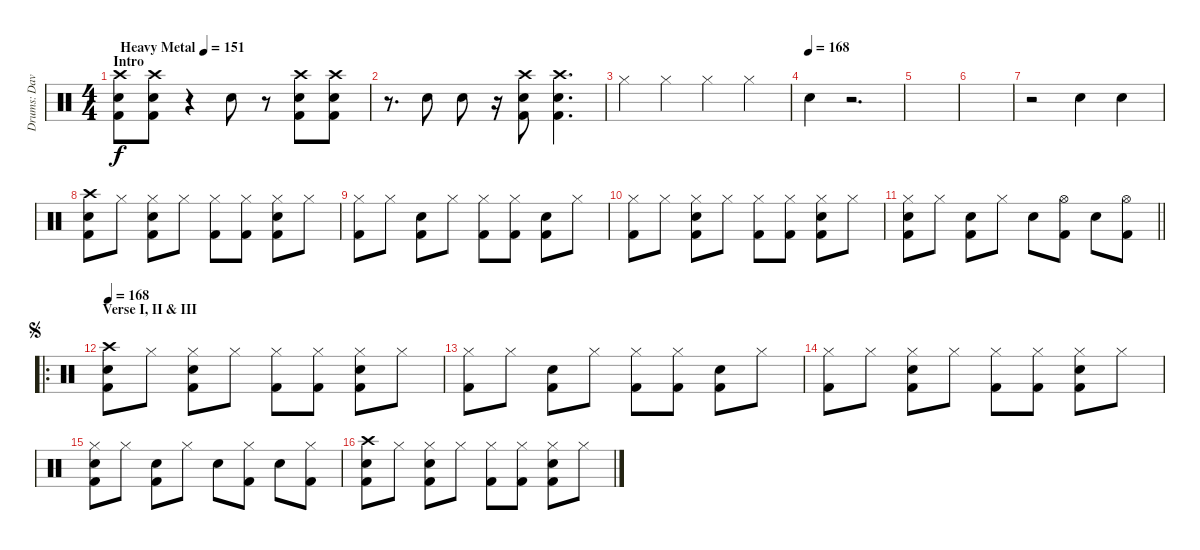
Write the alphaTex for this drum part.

\track ("Drums: Dave" "Drums: Dav") {instrument percussion}
\staff {score}
\articulation defaults
\ts (4 4)
\section ("" "Intro")
\tempo (151 "Heavy Metal")
\clef neutral
\ks c
("Crash high (hit)" "Snare (hit) 2" "Kick (hit) 2").8{dy f} ("Crash high (hit)" "Snare (hit) 2" "Kick (hit) 2").8 r.4 "Snare (hit) 2".8 r.8 ("Crash high (hit)" "Snare (hit) 2" "Kick (hit) 2").8 ("Crash high (hit)" "Snare (hit) 2" "Kick (hit) 2").8 |
r.8{d} "Snare (hit) 2".8 "Snare (hit) 2".8 r.16 ("Crash high (hit)" "Snare (hit) 2" "Kick (hit) 2").8 ("Crash high (hit)" "Snare (hit) 2" "Kick (hit) 2").4{d} |
"Hi-Hat (closed)".4 "Hi-Hat (closed)".4 "Hi-Hat (closed)".4 "Hi-Hat (closed)".4 |
\tempo (168)
"Snare (hit) 2".4 r.2{d} |
|
|
r.2 "Snare (hit) 2".4 "Snare (hit) 2".4 |
("Crash high (hit)" "Snare (hit) 2" "Kick (hit) 2").8 "Hi-Hat (closed)".8 ("Hi-Hat (closed)" "Snare (hit) 2" "Kick (hit) 2").8 "Hi-Hat (closed)".8 ("Hi-Hat (closed)" "Kick (hit) 2").8 ("Hi-Hat (closed)" "Kick (hit) 2").8 ("Hi-Hat (closed)" "Snare (hit) 2" "Kick (hit) 2").8 "Hi-Hat (closed)".8 |
("Hi-Hat (closed)" "Kick (hit) 2").8 "Hi-Hat (closed)".8 ("Snare (hit) 2" "Kick (hit) 2").8 "Hi-Hat (closed)".8 ("Hi-Hat (closed)" "Kick (hit) 2").8 ("Hi-Hat (closed)" "Kick (hit) 2").8 ("Snare (hit) 2" "Kick (hit) 2").8 "Hi-Hat (closed)".8 |
("Hi-Hat (closed)" "Kick (hit) 2").8 "Hi-Hat (closed)".8 ("Hi-Hat (closed)" "Snare (hit) 2" "Kick (hit) 2").8 "Hi-Hat (closed)".8 ("Hi-Hat (closed)" "Kick (hit) 2").8 ("Hi-Hat (closed)" "Kick (hit) 2").8 ("Hi-Hat (closed)" "Snare (hit) 2" "Kick (hit) 2").8 "Hi-Hat (closed)".8 |
\barLineRight lightlight
("Hi-Hat (closed)" "Snare (hit) 2" "Kick (hit) 2").8 "Hi-Hat (closed)".8 ("Snare (hit) 2" "Kick (hit) 2").8 "Hi-Hat (closed)".8 "Snare (hit) 2".8 ("Hi-Hat (open)" "Kick (hit) 2").8 "Snare (hit) 2".8 ("Hi-Hat (open)" "Kick (hit) 2").8 |
\ro
\section ("" "Verse I, II & III")
\jump segno
\tempo 168
("Crash high (hit)" "Snare (hit) 2" "Kick (hit) 2").8 "Hi-Hat (closed)".8 ("Hi-Hat (closed)" "Snare (hit) 2" "Kick (hit) 2").8 "Hi-Hat (closed)".8 ("Hi-Hat (closed)" "Kick (hit) 2").8 ("Hi-Hat (closed)" "Kick (hit) 2").8 ("Hi-Hat (closed)" "Snare (hit) 2" "Kick (hit) 2").8 "Hi-Hat (closed)".8 |
("Hi-Hat (closed)" "Kick (hit) 2").8 "Hi-Hat (closed)".8 ("Snare (hit) 2" "Kick (hit) 2").8 "Hi-Hat (closed)".8 ("Hi-Hat (closed)" "Kick (hit) 2").8 ("Hi-Hat (closed)" "Kick (hit) 2").8 ("Snare (hit) 2" "Kick (hit) 2").8 "Hi-Hat (closed)".8 |
("Hi-Hat (closed)" "Kick (hit) 2").8 "Hi-Hat (closed)".8 ("Hi-Hat (closed)" "Snare (hit) 2" "Kick (hit) 2").8 "Hi-Hat (closed)".8 ("Hi-Hat (closed)" "Kick (hit) 2").8 ("Hi-Hat (closed)" "Kick (hit) 2").8 ("Hi-Hat (closed)" "Snare (hit) 2" "Kick (hit) 2").8 "Hi-Hat (closed)".8 |
("Hi-Hat (closed)" "Snare (hit) 2" "Kick (hit) 2").8 "Hi-Hat (closed)".8 ("Snare (hit) 2" "Kick (hit) 2").8 "Hi-Hat (closed)".8 "Snare (hit) 2".8 ("Hi-Hat (closed)" "Kick (hit) 2").8 "Snare (hit) 2".8 ("Hi-Hat (closed)" "Kick (hit) 2").8 |
("Crash high (hit)" "Snare (hit) 2" "Kick (hit) 2").8 "Hi-Hat (closed)".8 ("Hi-Hat (closed)" "Snare (hit) 2" "Kick (hit) 2").8 "Hi-Hat (closed)".8 ("Hi-Hat (closed)" "Kick (hit) 2").8 ("Hi-Hat (closed)" "Kick (hit) 2").8 ("Hi-Hat (closed)" "Snare (hit) 2" "Kick (hit) 2").8 "Hi-Hat (closed)".8
